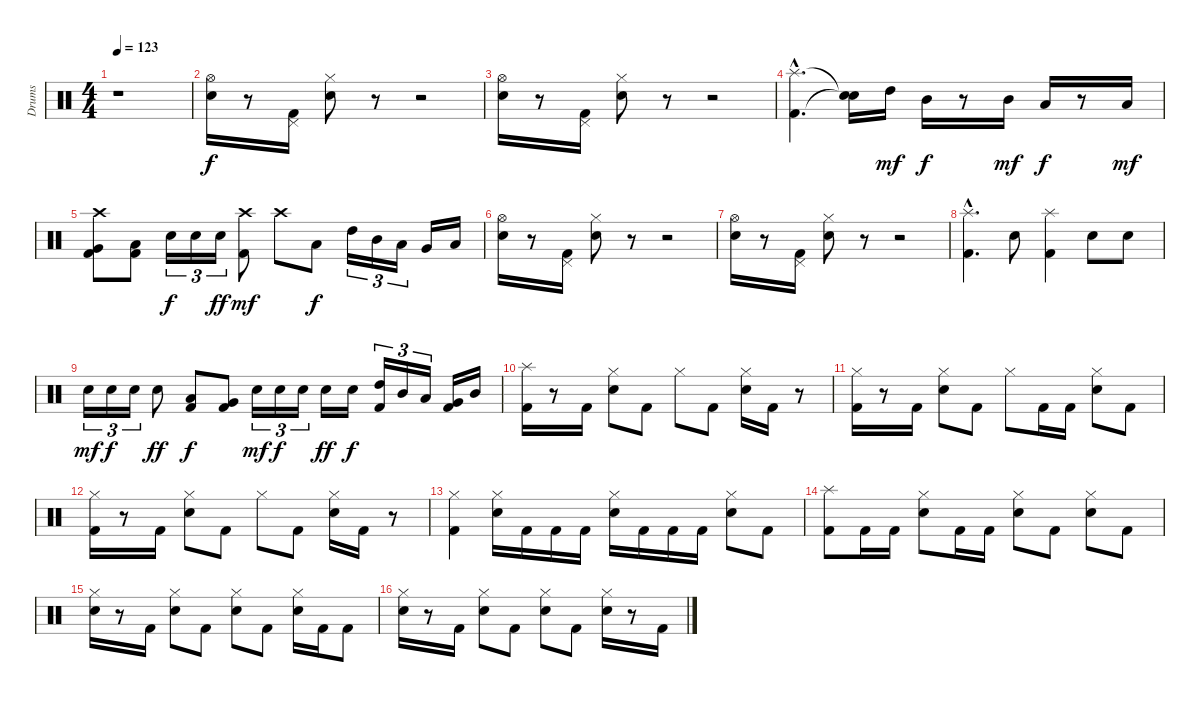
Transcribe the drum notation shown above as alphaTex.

\track ("Drums" "Drums") {instrument percussion}
\staff {score}
\articulation defaults
\ts (4 4)
\tempo 123
\clef neutral
\ks c
r.1{dy f} |
("Snare (hit) 2" "Hi-Hat (open)").16 r.8 ("Kick (hit) 2" "Pedal Hi-Hat (hit)").16 ("Snare (hit) 2" "Hi-Hat (closed)").8 r.8 r.2 |
("Snare (hit) 2" "Hi-Hat (open)").16 r.8 ("Kick (hit) 2" "Pedal Hi-Hat (hit)").16 ("Snare (hit) 2" "Hi-Hat (closed)").8 r.8 r.2 |
("Kick (hit) 2"{hac} "Splash (hit)"{hac}).4{d} ("Snare (hit)"{t} "Snare (hit)"{t}).16 "High Tom (hit)".16{dy mf} "Mid Tom (hit)".16{dy f} r.8 "Mid Tom (hit)".16{dy mf} "Low Tom (hit)".16{dy f} r.8 "Low Tom (hit)".16{dy mf} |
("Kick (hit) 2" "Very Low Tom (hit)" "Crash high (hit)").8 ("Kick (hit) 2" "Low Tom (hit)").8 "Snare (hit) 2".16{tu (3 2) dy f} "Snare (hit) 2".16{tu (3 2)} "Snare (hit) 2".16{tu (3 2) dy ff} ("Kick (hit) 2" "Crash high (hit)").8{dy mf} "Crash high (hit)".8 "Low Tom (hit)".8{dy f} "High Tom (hit)".16{tu (3 2)} "Mid Tom (hit)".16{tu (3 2)} "Low Tom (hit)".16{tu (3 2)} "Very Low Tom (hit)".16 "Low Floor Tom (hit)".16 |
("Snare (hit) 2" "Hi-Hat (open)").16 r.8 ("Kick (hit) 2" "Pedal Hi-Hat (hit)").16 ("Snare (hit) 2" "Hi-Hat (closed)").8 r.8 r.2 |
("Snare (hit) 2" "Hi-Hat (open)").16 r.8 ("Kick (hit) 2" "Pedal Hi-Hat (hit)").16 ("Snare (hit) 2" "Hi-Hat (closed)").8 r.8 r.2 |
("Kick (hit) 2"{hac} "Splash (hit)"{hac}).4{d} "Snare (hit) 2".8 ("Kick (hit) 2" "Splash (hit)").4 "Snare (hit) 2".8 "Snare (hit) 2".8 |
"Snare (hit) 2".16{tu (3 2) dy mf} "Snare (hit) 2".16{tu (3 2) dy f} "Snare (hit) 2".16{tu (3 2)} "Snare (hit) 2".8{dy ff} ("Kick (hit) 2" "Low Tom (hit)").8{dy f} ("Kick (hit) 2" "Very Low Tom (hit)").8 "Snare (hit) 2".16{tu (3 2) dy mf} "Snare (hit) 2".16{tu (3 2) dy f} "Snare (hit) 2".16{tu (3 2)} "Snare (hit) 2".16{dy ff} "Snare (hit) 2".16{dy f} ("Kick (hit) 2" "High Tom (hit)").16{tu (3 2)} "Mid Tom (hit)".16{tu (3 2)} "Low Tom (hit)".16{tu (3 2)} ("Kick (hit) 2" "Very Low Tom (hit)").16 "Mid Tom (hit)".16 |
("Kick (hit) 2" "Splash (hit)").16 r.8 "Kick (hit) 2".16 ("Snare (hit) 2" "Hi-Hat (closed)").8 "Kick (hit) 2".8 "Hi-Hat (closed)".8 "Kick (hit) 2".8 ("Snare (hit) 2" "Hi-Hat (closed)").16 "Kick (hit) 2".16 r.8 |
("Kick (hit) 2" "Hi-Hat (closed)").16 r.8 "Kick (hit) 2".16 ("Snare (hit) 2" "Hi-Hat (closed)").8 "Kick (hit) 2".8 "Hi-Hat (closed)".8 "Kick (hit) 2".16 "Kick (hit) 2".16 ("Snare (hit) 2" "Hi-Hat (closed)").8 "Kick (hit) 2".8 |
("Kick (hit) 2" "Hi-Hat (closed)").16 r.8 "Kick (hit) 2".16 ("Snare (hit) 2" "Hi-Hat (closed)").8 "Kick (hit) 2".8 "Hi-Hat (closed)".8 "Kick (hit) 2".8 ("Snare (hit) 2" "Hi-Hat (closed)").16 "Kick (hit) 2".16 r.8 |
("Kick (hit) 2" "Hi-Hat (closed)").4 ("Snare (hit) 2" "Hi-Hat (closed)").16 "Kick (hit) 2".16 "Kick (hit) 2".16 "Kick (hit) 2".16 ("Snare (hit) 2" "Hi-Hat (closed)").16 "Kick (hit) 2".16 "Kick (hit) 2".16 "Kick (hit) 2".16 ("Snare (hit) 2" "Hi-Hat (closed)").8 "Kick (hit) 2".8 |
("Kick (hit) 2" "Splash (hit)").8 "Kick (hit) 2".16 "Kick (hit) 2".16 ("Snare (hit) 2" "Hi-Hat (closed)").8 "Kick (hit) 2".16 "Kick (hit) 2".16 ("Snare (hit) 2" "Hi-Hat (closed)").8 "Kick (hit) 2".8 ("Snare (hit) 2" "Hi-Hat (closed)").8 "Kick (hit) 2".8 |
("Snare (hit) 2" "Hi-Hat (closed)").16 r.8 "Kick (hit) 2".16 ("Snare (hit) 2" "Hi-Hat (closed)").8 "Kick (hit) 2".8 ("Snare (hit) 2" "Hi-Hat (closed)").8 "Kick (hit) 2".8 ("Snare (hit) 2" "Hi-Hat (closed)").16 "Kick (hit) 2".16 "Kick (hit) 2".8 |
("Snare (hit) 2" "Hi-Hat (closed)").16 r.8 "Kick (hit) 2".16 ("Snare (hit) 2" "Hi-Hat (closed)").8 "Kick (hit) 2".8 ("Snare (hit) 2" "Hi-Hat (closed)").8 "Kick (hit) 2".8 ("Snare (hit) 2" "Hi-Hat (closed)").16 r.8 "Kick (hit) 2".16
